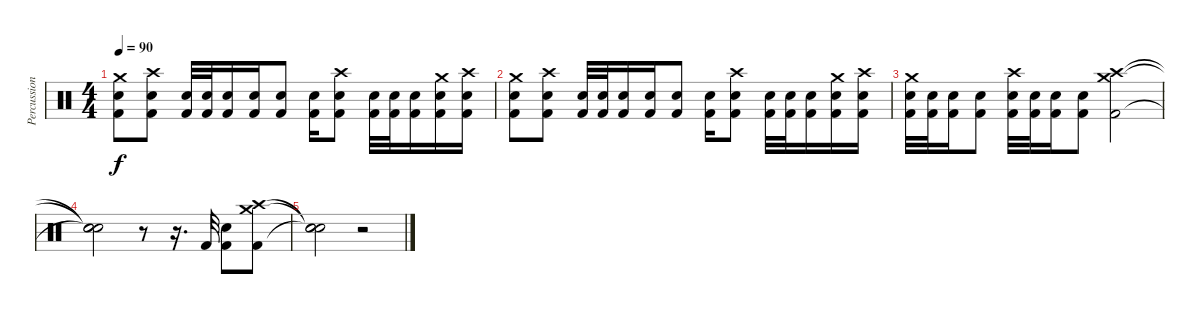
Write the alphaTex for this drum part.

\track ("Percussion" "Percussion") {instrument percussion}
\staff {score}
\articulation defaults
\ts (4 4)
\tempo 90
\clef neutral
\ks c
("Crash medium (hit)" "Kick (hit) 2" "Electric Snare (hit)").8{dy f} ("Crash high (hit)" "Kick (hit) 2" "Electric Snare (hit)").8 ("Kick (hit) 2" "Electric Snare (hit)").32 ("Kick (hit) 2" "Electric Snare (hit)").32 ("Kick (hit) 2" "Electric Snare (hit)").16 ("Kick (hit) 2" "Electric Snare (hit)").16 ("Kick (hit) 2" "Electric Snare (hit)").8 ("Kick (hit) 2" "Electric Snare (hit)").16 ("Crash high (hit)" "Kick (hit) 2" "Electric Snare (hit)").8 ("Kick (hit) 2" "Electric Snare (hit)").32 ("Kick (hit) 2" "Electric Snare (hit)").32 ("Kick (hit) 2" "Electric Snare (hit)").16 ("Crash medium (hit)" "Kick (hit) 2" "Electric Snare (hit)").16 ("Crash high (hit)" "Kick (hit) 2" "Electric Snare (hit)").16 |
("Crash medium (hit)" "Kick (hit) 2" "Electric Snare (hit)").8 ("Crash high (hit)" "Kick (hit) 2" "Electric Snare (hit)").8 ("Kick (hit) 2" "Electric Snare (hit)").32 ("Kick (hit) 2" "Electric Snare (hit)").32 ("Kick (hit) 2" "Electric Snare (hit)").16 ("Kick (hit) 2" "Electric Snare (hit)").16 ("Kick (hit) 2" "Electric Snare (hit)").8 ("Kick (hit) 2" "Electric Snare (hit)").16 ("Crash high (hit)" "Kick (hit) 2" "Electric Snare (hit)").8 ("Kick (hit) 2" "Electric Snare (hit)").32 ("Kick (hit) 2" "Electric Snare (hit)").32 ("Kick (hit) 2" "Electric Snare (hit)").16 ("Crash medium (hit)" "Kick (hit) 2" "Electric Snare (hit)").16 ("Crash high (hit)" "Kick (hit) 2" "Electric Snare (hit)").16 |
("Crash medium (hit)" "Kick (hit) 2" "Electric Snare (hit)").32 ("Kick (hit) 2" "Electric Snare (hit)").32 ("Kick (hit) 2" "Electric Snare (hit)").16 ("Kick (hit) 2" "Electric Snare (hit)").8 ("Crash high (hit)" "Kick (hit) 2" "Electric Snare (hit)").32 ("Kick (hit) 2" "Electric Snare (hit)").32 ("Kick (hit) 2" "Electric Snare (hit)").16 ("Kick (hit) 2" "Electric Snare (hit)").8 ("Crash medium (hit)" "Crash high (hit)" "Kick (hit) 2").2 |
("Snare (hit)"{t} "Snare (hit)"{t} "Snare (hit)"{t}).2 r.8 r.16{d} "Kick (hit) 2".32 ("Electric Snare (hit)" "Kick (hit) 2").8 ("Crash medium (hit)" "Crash high (hit)" "Kick (hit) 2").8 |
("Snare (hit)"{t} "Snare (hit)"{t} "Snare (hit)"{t}).2 r.2
